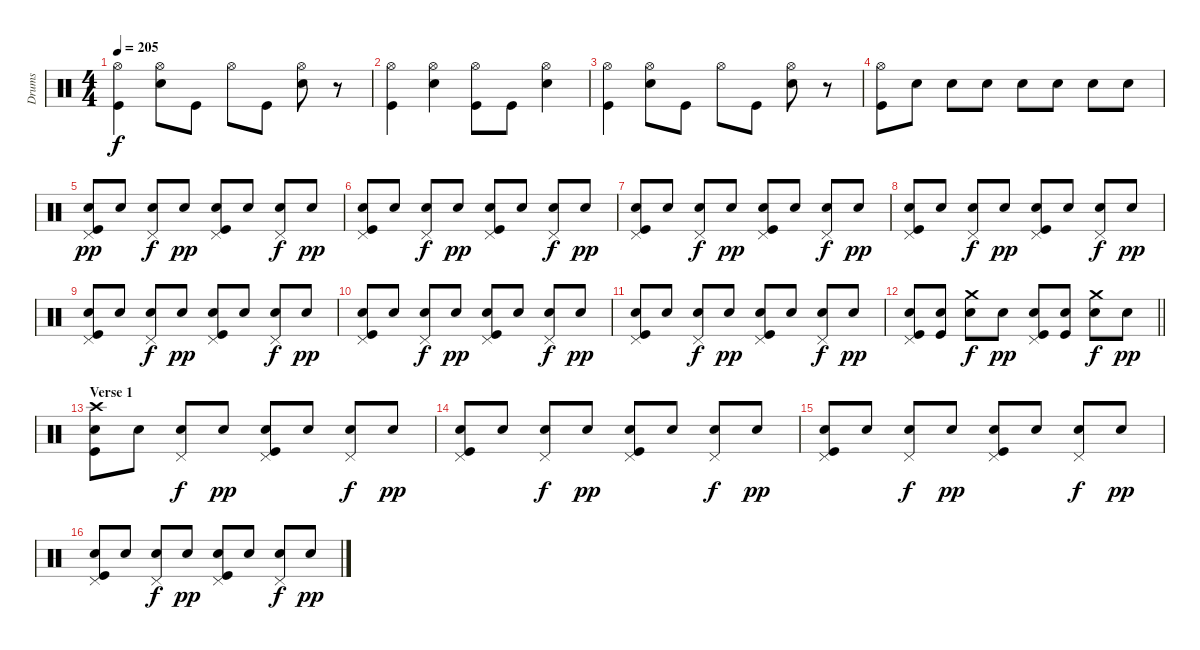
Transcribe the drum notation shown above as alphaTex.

\track ("Drums" "Drums") {instrument percussion}
\staff {score}
\articulation defaults
\ts (4 4)
\tempo 205
\clef neutral
\ks c
("Hi-Hat (open)" "Kick (hit)").4{dy f} ("Hi-Hat (open)" "Electric Snare (hit)").8 "Kick (hit)".8 "Hi-Hat (open)".8 "Kick (hit)".8 ("Hi-Hat (open)" "Electric Snare (hit)").8 r.8 |
("Hi-Hat (open)" "Kick (hit)").4 ("Hi-Hat (open)" "Electric Snare (hit)").4 ("Hi-Hat (open)" "Kick (hit)").8 "Kick (hit)".8 ("Hi-Hat (open)" "Electric Snare (hit)").4 |
("Hi-Hat (open)" "Kick (hit)").4 ("Hi-Hat (open)" "Electric Snare (hit)").8 "Kick (hit)".8 "Hi-Hat (open)".8 "Kick (hit)".8 ("Hi-Hat (open)" "Electric Snare (hit)").8 r.8 |
("Hi-Hat (open)" "Kick (hit)").8 "Electric Snare (hit)".8 "Electric Snare (hit)".8 "Electric Snare (hit)".8 "Electric Snare (hit)".8 "Electric Snare (hit)".8 "Electric Snare (hit)".8 "Electric Snare (hit)".8 |
("Pedal Hi-Hat (hit)" "Electric Snare (hit)" "Kick (hit)").8{dy pp} "Electric Snare (hit)".8 ("Pedal Hi-Hat (hit)" "Electric Snare (hit)").8{dy f} "Electric Snare (hit)".8{dy pp} ("Pedal Hi-Hat (hit)" "Electric Snare (hit)" "Kick (hit)").8 "Electric Snare (hit)".8 ("Pedal Hi-Hat (hit)" "Electric Snare (hit)").8{dy f} "Electric Snare (hit)".8{dy pp} |
("Pedal Hi-Hat (hit)" "Electric Snare (hit)" "Kick (hit)").8 "Electric Snare (hit)".8 ("Pedal Hi-Hat (hit)" "Electric Snare (hit)").8{dy f} "Electric Snare (hit)".8{dy pp} ("Pedal Hi-Hat (hit)" "Electric Snare (hit)" "Kick (hit)").8 "Electric Snare (hit)".8 ("Pedal Hi-Hat (hit)" "Electric Snare (hit)").8{dy f} "Electric Snare (hit)".8{dy pp} |
("Pedal Hi-Hat (hit)" "Electric Snare (hit)" "Kick (hit)").8 "Electric Snare (hit)".8 ("Pedal Hi-Hat (hit)" "Electric Snare (hit)").8{dy f} "Electric Snare (hit)".8{dy pp} ("Pedal Hi-Hat (hit)" "Electric Snare (hit)" "Kick (hit)").8 "Electric Snare (hit)".8 ("Pedal Hi-Hat (hit)" "Electric Snare (hit)").8{dy f} "Electric Snare (hit)".8{dy pp} |
("Pedal Hi-Hat (hit)" "Electric Snare (hit)" "Kick (hit)").8 "Electric Snare (hit)".8 ("Pedal Hi-Hat (hit)" "Electric Snare (hit)").8{dy f} "Electric Snare (hit)".8{dy pp} ("Pedal Hi-Hat (hit)" "Electric Snare (hit)" "Kick (hit)").8 "Electric Snare (hit)".8 ("Pedal Hi-Hat (hit)" "Electric Snare (hit)").8{dy f} "Electric Snare (hit)".8{dy pp} |
("Pedal Hi-Hat (hit)" "Electric Snare (hit)" "Kick (hit)").8 "Electric Snare (hit)".8 ("Pedal Hi-Hat (hit)" "Electric Snare (hit)").8{dy f} "Electric Snare (hit)".8{dy pp} ("Pedal Hi-Hat (hit)" "Electric Snare (hit)" "Kick (hit)").8 "Electric Snare (hit)".8 ("Pedal Hi-Hat (hit)" "Electric Snare (hit)").8{dy f} "Electric Snare (hit)".8{dy pp} |
("Pedal Hi-Hat (hit)" "Electric Snare (hit)" "Kick (hit)").8 "Electric Snare (hit)".8 ("Pedal Hi-Hat (hit)" "Electric Snare (hit)").8{dy f} "Electric Snare (hit)".8{dy pp} ("Pedal Hi-Hat (hit)" "Electric Snare (hit)" "Kick (hit)").8 "Electric Snare (hit)".8 ("Pedal Hi-Hat (hit)" "Electric Snare (hit)").8{dy f} "Electric Snare (hit)".8{dy pp} |
("Pedal Hi-Hat (hit)" "Electric Snare (hit)" "Kick (hit)").8 "Electric Snare (hit)".8 ("Pedal Hi-Hat (hit)" "Electric Snare (hit)").8{dy f} "Electric Snare (hit)".8{dy pp} ("Pedal Hi-Hat (hit)" "Electric Snare (hit)" "Kick (hit)").8 "Electric Snare (hit)".8 ("Pedal Hi-Hat (hit)" "Electric Snare (hit)").8{dy f} "Electric Snare (hit)".8{dy pp} |
\barLineRight lightlight
("Pedal Hi-Hat (hit)" "Electric Snare (hit)" "Kick (hit)").8 ("Electric Snare (hit)" "Kick (hit)").8 ("Crash medium (hit)" "Electric Snare (hit)").8{dy f} "Electric Snare (hit)".8{dy pp} ("Pedal Hi-Hat (hit)" "Electric Snare (hit)" "Kick (hit)").8 ("Electric Snare (hit)" "Kick (hit)").8 ("Crash medium (hit)" "Electric Snare (hit)").8{dy f} "Electric Snare (hit)".8{dy pp} |
\section ("" "Verse 1")
("Crash high (hit)" "Electric Snare (hit)" "Kick (hit)").8 "Electric Snare (hit)".8 ("Pedal Hi-Hat (hit)" "Electric Snare (hit)").8{dy f} "Electric Snare (hit)".8{dy pp} ("Pedal Hi-Hat (hit)" "Electric Snare (hit)" "Kick (hit)").8 "Electric Snare (hit)".8 ("Pedal Hi-Hat (hit)" "Electric Snare (hit)").8{dy f} "Electric Snare (hit)".8{dy pp} |
("Pedal Hi-Hat (hit)" "Electric Snare (hit)" "Kick (hit)").8 "Electric Snare (hit)".8 ("Pedal Hi-Hat (hit)" "Electric Snare (hit)").8{dy f} "Electric Snare (hit)".8{dy pp} ("Pedal Hi-Hat (hit)" "Electric Snare (hit)" "Kick (hit)").8 "Electric Snare (hit)".8 ("Pedal Hi-Hat (hit)" "Electric Snare (hit)").8{dy f} "Electric Snare (hit)".8{dy pp} |
("Pedal Hi-Hat (hit)" "Electric Snare (hit)" "Kick (hit)").8 "Electric Snare (hit)".8 ("Pedal Hi-Hat (hit)" "Electric Snare (hit)").8{dy f} "Electric Snare (hit)".8{dy pp} ("Pedal Hi-Hat (hit)" "Electric Snare (hit)" "Kick (hit)").8 "Electric Snare (hit)".8 ("Pedal Hi-Hat (hit)" "Electric Snare (hit)").8{dy f} "Electric Snare (hit)".8{dy pp} |
("Pedal Hi-Hat (hit)" "Electric Snare (hit)" "Kick (hit)").8 "Electric Snare (hit)".8 ("Pedal Hi-Hat (hit)" "Electric Snare (hit)").8{dy f} "Electric Snare (hit)".8{dy pp} ("Pedal Hi-Hat (hit)" "Electric Snare (hit)" "Kick (hit)").8 "Electric Snare (hit)".8 ("Pedal Hi-Hat (hit)" "Electric Snare (hit)").8{dy f} "Electric Snare (hit)".8{dy pp}
